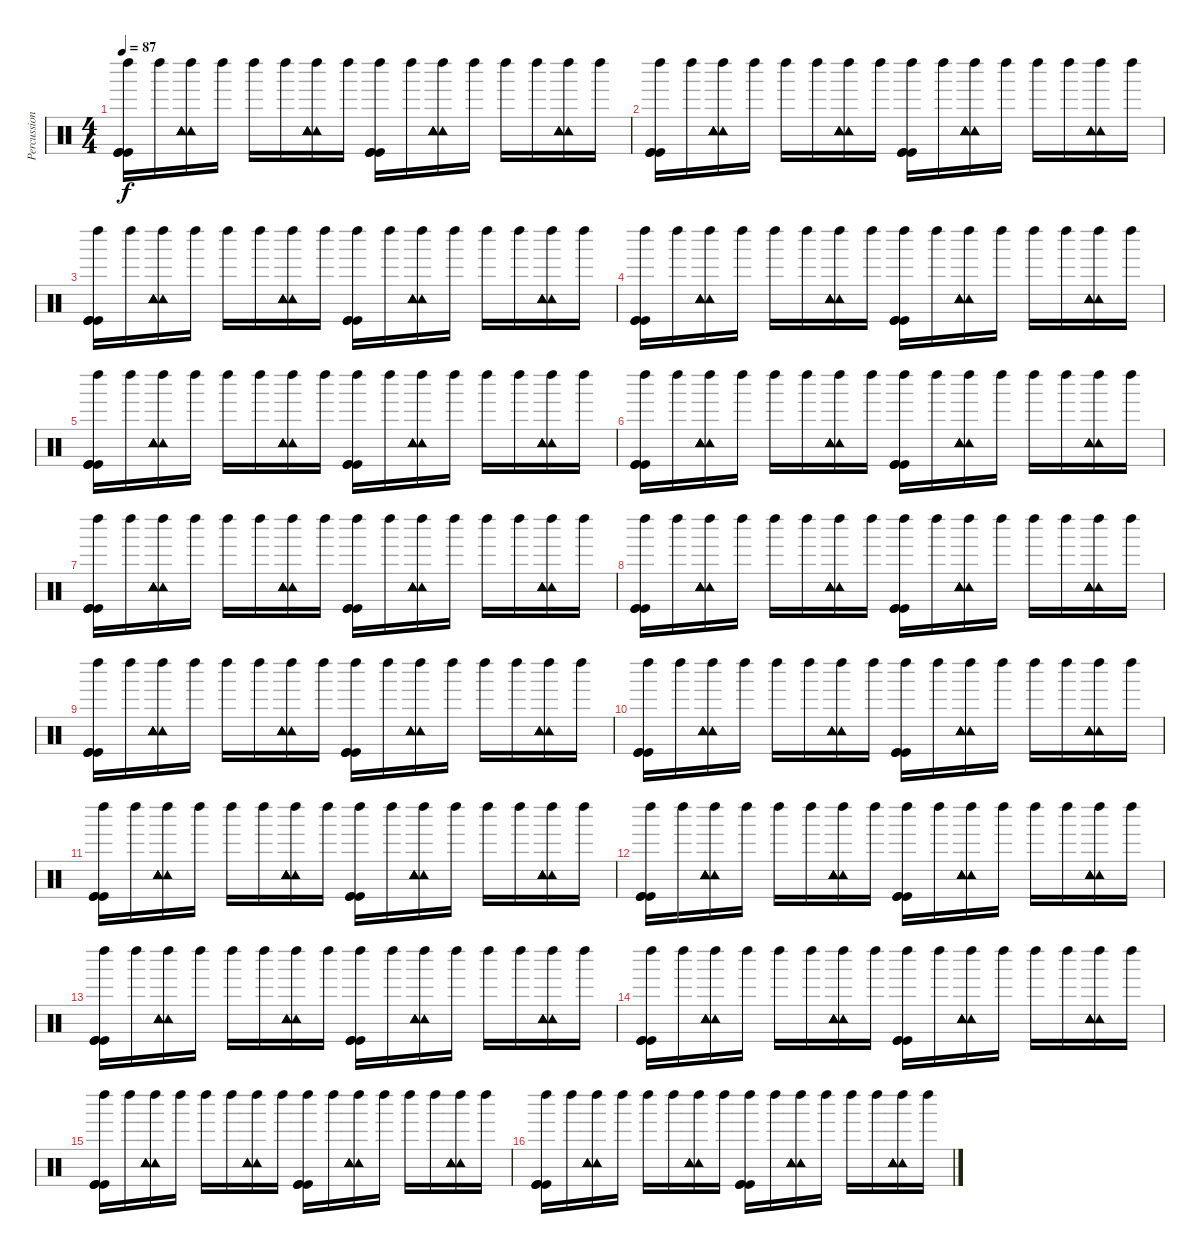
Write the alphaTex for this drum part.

\track ("Percussions" "Percussion") {instrument percussion}
\staff {score}
\articulation defaults
\ts (4 4)
\tempo 87
\clef neutral
\ks c
("Kick (hit)" "Kick (hit)" "Kick (hit)" "Left Maraca (hit)").16{dy f} "Left Maraca (hit)".16 ("Tambourine (hit)" "Tambourine (hit)" "Tambourine (hit)" "Tambourine (hit)" "Left Maraca (hit)" "Tambourine (hit)").16 "Left Maraca (hit)".16 "Left Maraca (hit)".16 "Left Maraca (hit)".16 ("Tambourine (hit)" "Tambourine (hit)" "Tambourine (hit)" "Tambourine (hit)" "Left Maraca (hit)" "Tambourine (hit)").16 "Left Maraca (hit)".16 ("Kick (hit)" "Kick (hit)" "Kick (hit)" "Left Maraca (hit)").16 "Left Maraca (hit)".16 ("Tambourine (hit)" "Tambourine (hit)" "Tambourine (hit)" "Tambourine (hit)" "Left Maraca (hit)" "Tambourine (hit)").16 "Left Maraca (hit)".16 "Left Maraca (hit)".16 "Left Maraca (hit)".16 ("Tambourine (hit)" "Tambourine (hit)" "Tambourine (hit)" "Tambourine (hit)" "Left Maraca (hit)" "Tambourine (hit)").16 "Left Maraca (hit)".16 |
("Kick (hit)" "Kick (hit)" "Kick (hit)" "Left Maraca (hit)").16 "Left Maraca (hit)".16 ("Tambourine (hit)" "Tambourine (hit)" "Tambourine (hit)" "Tambourine (hit)" "Left Maraca (hit)" "Tambourine (hit)").16 "Left Maraca (hit)".16 "Left Maraca (hit)".16 "Left Maraca (hit)".16 ("Tambourine (hit)" "Tambourine (hit)" "Tambourine (hit)" "Tambourine (hit)" "Left Maraca (hit)" "Tambourine (hit)").16 "Left Maraca (hit)".16 ("Kick (hit)" "Kick (hit)" "Kick (hit)" "Left Maraca (hit)").16 "Left Maraca (hit)".16 ("Tambourine (hit)" "Tambourine (hit)" "Tambourine (hit)" "Tambourine (hit)" "Left Maraca (hit)" "Tambourine (hit)").16 "Left Maraca (hit)".16 "Left Maraca (hit)".16 "Left Maraca (hit)".16 ("Tambourine (hit)" "Tambourine (hit)" "Tambourine (hit)" "Tambourine (hit)" "Left Maraca (hit)" "Tambourine (hit)").16 "Left Maraca (hit)".16 |
("Kick (hit)" "Kick (hit)" "Kick (hit)" "Left Maraca (hit)").16 "Left Maraca (hit)".16 ("Tambourine (hit)" "Tambourine (hit)" "Tambourine (hit)" "Tambourine (hit)" "Left Maraca (hit)" "Tambourine (hit)").16 "Left Maraca (hit)".16 "Left Maraca (hit)".16 "Left Maraca (hit)".16 ("Tambourine (hit)" "Tambourine (hit)" "Tambourine (hit)" "Tambourine (hit)" "Left Maraca (hit)" "Tambourine (hit)").16 "Left Maraca (hit)".16 ("Kick (hit)" "Kick (hit)" "Kick (hit)" "Left Maraca (hit)").16 "Left Maraca (hit)".16 ("Tambourine (hit)" "Tambourine (hit)" "Tambourine (hit)" "Tambourine (hit)" "Left Maraca (hit)" "Tambourine (hit)").16 "Left Maraca (hit)".16 "Left Maraca (hit)".16 "Left Maraca (hit)".16 ("Tambourine (hit)" "Tambourine (hit)" "Tambourine (hit)" "Tambourine (hit)" "Left Maraca (hit)" "Tambourine (hit)").16 "Left Maraca (hit)".16 |
("Kick (hit)" "Kick (hit)" "Kick (hit)" "Left Maraca (hit)").16 "Left Maraca (hit)".16 ("Tambourine (hit)" "Tambourine (hit)" "Tambourine (hit)" "Tambourine (hit)" "Left Maraca (hit)" "Tambourine (hit)").16 "Left Maraca (hit)".16 "Left Maraca (hit)".16 "Left Maraca (hit)".16 ("Tambourine (hit)" "Tambourine (hit)" "Tambourine (hit)" "Tambourine (hit)" "Left Maraca (hit)" "Tambourine (hit)").16 "Left Maraca (hit)".16 ("Kick (hit)" "Kick (hit)" "Kick (hit)" "Left Maraca (hit)").16 "Left Maraca (hit)".16 ("Tambourine (hit)" "Tambourine (hit)" "Tambourine (hit)" "Tambourine (hit)" "Left Maraca (hit)" "Tambourine (hit)").16 "Left Maraca (hit)".16 "Left Maraca (hit)".16 "Left Maraca (hit)".16 ("Tambourine (hit)" "Tambourine (hit)" "Tambourine (hit)" "Tambourine (hit)" "Left Maraca (hit)" "Tambourine (hit)").16 "Left Maraca (hit)".16 |
("Kick (hit)" "Kick (hit)" "Kick (hit)" "Left Maraca (hit)").16 "Left Maraca (hit)".16 ("Tambourine (hit)" "Tambourine (hit)" "Tambourine (hit)" "Tambourine (hit)" "Left Maraca (hit)" "Tambourine (hit)").16 "Left Maraca (hit)".16 "Left Maraca (hit)".16 "Left Maraca (hit)".16 ("Tambourine (hit)" "Tambourine (hit)" "Tambourine (hit)" "Tambourine (hit)" "Left Maraca (hit)" "Tambourine (hit)").16 "Left Maraca (hit)".16 ("Kick (hit)" "Kick (hit)" "Kick (hit)" "Left Maraca (hit)").16 "Left Maraca (hit)".16 ("Tambourine (hit)" "Tambourine (hit)" "Tambourine (hit)" "Tambourine (hit)" "Left Maraca (hit)" "Tambourine (hit)").16 "Left Maraca (hit)".16 "Left Maraca (hit)".16 "Left Maraca (hit)".16 ("Tambourine (hit)" "Tambourine (hit)" "Tambourine (hit)" "Tambourine (hit)" "Left Maraca (hit)" "Tambourine (hit)").16 "Left Maraca (hit)".16 |
("Kick (hit)" "Kick (hit)" "Kick (hit)" "Left Maraca (hit)").16 "Left Maraca (hit)".16 ("Tambourine (hit)" "Tambourine (hit)" "Tambourine (hit)" "Tambourine (hit)" "Left Maraca (hit)" "Tambourine (hit)").16 "Left Maraca (hit)".16 "Left Maraca (hit)".16 "Left Maraca (hit)".16 ("Tambourine (hit)" "Tambourine (hit)" "Tambourine (hit)" "Tambourine (hit)" "Left Maraca (hit)" "Tambourine (hit)").16 "Left Maraca (hit)".16 ("Kick (hit)" "Kick (hit)" "Kick (hit)" "Left Maraca (hit)").16 "Left Maraca (hit)".16 ("Tambourine (hit)" "Tambourine (hit)" "Tambourine (hit)" "Tambourine (hit)" "Left Maraca (hit)" "Tambourine (hit)").16 "Left Maraca (hit)".16 "Left Maraca (hit)".16 "Left Maraca (hit)".16 ("Tambourine (hit)" "Tambourine (hit)" "Tambourine (hit)" "Tambourine (hit)" "Left Maraca (hit)" "Tambourine (hit)").16 "Left Maraca (hit)".16 |
("Kick (hit)" "Kick (hit)" "Kick (hit)" "Left Maraca (hit)").16 "Left Maraca (hit)".16 ("Tambourine (hit)" "Tambourine (hit)" "Tambourine (hit)" "Tambourine (hit)" "Left Maraca (hit)" "Tambourine (hit)").16 "Left Maraca (hit)".16 "Left Maraca (hit)".16 "Left Maraca (hit)".16 ("Tambourine (hit)" "Tambourine (hit)" "Tambourine (hit)" "Tambourine (hit)" "Left Maraca (hit)" "Tambourine (hit)").16 "Left Maraca (hit)".16 ("Kick (hit)" "Kick (hit)" "Kick (hit)" "Left Maraca (hit)").16 "Left Maraca (hit)".16 ("Tambourine (hit)" "Tambourine (hit)" "Tambourine (hit)" "Tambourine (hit)" "Left Maraca (hit)" "Tambourine (hit)").16 "Left Maraca (hit)".16 "Left Maraca (hit)".16 "Left Maraca (hit)".16 ("Tambourine (hit)" "Tambourine (hit)" "Tambourine (hit)" "Tambourine (hit)" "Left Maraca (hit)" "Tambourine (hit)").16 "Left Maraca (hit)".16 |
("Kick (hit)" "Kick (hit)" "Kick (hit)" "Left Maraca (hit)").16 "Left Maraca (hit)".16 ("Tambourine (hit)" "Tambourine (hit)" "Tambourine (hit)" "Tambourine (hit)" "Left Maraca (hit)" "Tambourine (hit)").16 "Left Maraca (hit)".16 "Left Maraca (hit)".16 "Left Maraca (hit)".16 ("Tambourine (hit)" "Tambourine (hit)" "Tambourine (hit)" "Tambourine (hit)" "Left Maraca (hit)" "Tambourine (hit)").16 "Left Maraca (hit)".16 ("Kick (hit)" "Kick (hit)" "Kick (hit)" "Left Maraca (hit)").16 "Left Maraca (hit)".16 ("Tambourine (hit)" "Tambourine (hit)" "Tambourine (hit)" "Tambourine (hit)" "Left Maraca (hit)" "Tambourine (hit)").16 "Left Maraca (hit)".16 "Left Maraca (hit)".16 "Left Maraca (hit)".16 ("Tambourine (hit)" "Tambourine (hit)" "Tambourine (hit)" "Tambourine (hit)" "Left Maraca (hit)" "Tambourine (hit)").16 "Left Maraca (hit)".16 |
("Kick (hit)" "Kick (hit)" "Kick (hit)" "Left Maraca (hit)").16 "Left Maraca (hit)".16 ("Tambourine (hit)" "Tambourine (hit)" "Tambourine (hit)" "Tambourine (hit)" "Left Maraca (hit)" "Tambourine (hit)").16 "Left Maraca (hit)".16 "Left Maraca (hit)".16 "Left Maraca (hit)".16 ("Tambourine (hit)" "Tambourine (hit)" "Tambourine (hit)" "Tambourine (hit)" "Left Maraca (hit)" "Tambourine (hit)").16 "Left Maraca (hit)".16 ("Kick (hit)" "Kick (hit)" "Kick (hit)" "Left Maraca (hit)").16 "Left Maraca (hit)".16 ("Tambourine (hit)" "Tambourine (hit)" "Tambourine (hit)" "Tambourine (hit)" "Left Maraca (hit)" "Tambourine (hit)").16 "Left Maraca (hit)".16 "Left Maraca (hit)".16 "Left Maraca (hit)".16 ("Tambourine (hit)" "Tambourine (hit)" "Tambourine (hit)" "Tambourine (hit)" "Left Maraca (hit)" "Tambourine (hit)").16 "Left Maraca (hit)".16 |
("Kick (hit)" "Kick (hit)" "Kick (hit)" "Left Maraca (hit)").16 "Left Maraca (hit)".16 ("Tambourine (hit)" "Tambourine (hit)" "Tambourine (hit)" "Tambourine (hit)" "Left Maraca (hit)" "Tambourine (hit)").16 "Left Maraca (hit)".16 "Left Maraca (hit)".16 "Left Maraca (hit)".16 ("Tambourine (hit)" "Tambourine (hit)" "Tambourine (hit)" "Tambourine (hit)" "Left Maraca (hit)" "Tambourine (hit)").16 "Left Maraca (hit)".16 ("Kick (hit)" "Kick (hit)" "Kick (hit)" "Left Maraca (hit)").16 "Left Maraca (hit)".16 ("Tambourine (hit)" "Tambourine (hit)" "Tambourine (hit)" "Tambourine (hit)" "Left Maraca (hit)" "Tambourine (hit)").16 "Left Maraca (hit)".16 "Left Maraca (hit)".16 "Left Maraca (hit)".16 ("Tambourine (hit)" "Tambourine (hit)" "Tambourine (hit)" "Tambourine (hit)" "Left Maraca (hit)" "Tambourine (hit)").16 "Left Maraca (hit)".16 |
("Kick (hit)" "Kick (hit)" "Kick (hit)" "Left Maraca (hit)").16 "Left Maraca (hit)".16 ("Tambourine (hit)" "Tambourine (hit)" "Tambourine (hit)" "Tambourine (hit)" "Left Maraca (hit)" "Tambourine (hit)").16 "Left Maraca (hit)".16 "Left Maraca (hit)".16 "Left Maraca (hit)".16 ("Tambourine (hit)" "Tambourine (hit)" "Tambourine (hit)" "Tambourine (hit)" "Left Maraca (hit)" "Tambourine (hit)").16 "Left Maraca (hit)".16 ("Kick (hit)" "Kick (hit)" "Kick (hit)" "Left Maraca (hit)").16 "Left Maraca (hit)".16 ("Tambourine (hit)" "Tambourine (hit)" "Tambourine (hit)" "Tambourine (hit)" "Left Maraca (hit)" "Tambourine (hit)").16 "Left Maraca (hit)".16 "Left Maraca (hit)".16 "Left Maraca (hit)".16 ("Tambourine (hit)" "Tambourine (hit)" "Tambourine (hit)" "Tambourine (hit)" "Left Maraca (hit)" "Tambourine (hit)").16 "Left Maraca (hit)".16 |
("Kick (hit)" "Kick (hit)" "Kick (hit)" "Left Maraca (hit)").16 "Left Maraca (hit)".16 ("Tambourine (hit)" "Tambourine (hit)" "Tambourine (hit)" "Tambourine (hit)" "Left Maraca (hit)" "Tambourine (hit)").16 "Left Maraca (hit)".16 "Left Maraca (hit)".16 "Left Maraca (hit)".16 ("Tambourine (hit)" "Tambourine (hit)" "Tambourine (hit)" "Tambourine (hit)" "Left Maraca (hit)" "Tambourine (hit)").16 "Left Maraca (hit)".16 ("Kick (hit)" "Kick (hit)" "Kick (hit)" "Left Maraca (hit)").16 "Left Maraca (hit)".16 ("Tambourine (hit)" "Tambourine (hit)" "Tambourine (hit)" "Tambourine (hit)" "Left Maraca (hit)" "Tambourine (hit)").16 "Left Maraca (hit)".16 "Left Maraca (hit)".16 "Left Maraca (hit)".16 ("Tambourine (hit)" "Tambourine (hit)" "Tambourine (hit)" "Tambourine (hit)" "Left Maraca (hit)" "Tambourine (hit)").16 "Left Maraca (hit)".16 |
("Kick (hit)" "Kick (hit)" "Kick (hit)" "Left Maraca (hit)").16 "Left Maraca (hit)".16 ("Tambourine (hit)" "Tambourine (hit)" "Tambourine (hit)" "Tambourine (hit)" "Left Maraca (hit)" "Tambourine (hit)").16 "Left Maraca (hit)".16 "Left Maraca (hit)".16 "Left Maraca (hit)".16 ("Tambourine (hit)" "Tambourine (hit)" "Tambourine (hit)" "Tambourine (hit)" "Left Maraca (hit)" "Tambourine (hit)").16 "Left Maraca (hit)".16 ("Kick (hit)" "Kick (hit)" "Kick (hit)" "Left Maraca (hit)").16 "Left Maraca (hit)".16 ("Tambourine (hit)" "Tambourine (hit)" "Tambourine (hit)" "Tambourine (hit)" "Left Maraca (hit)" "Tambourine (hit)").16 "Left Maraca (hit)".16 "Left Maraca (hit)".16 "Left Maraca (hit)".16 ("Tambourine (hit)" "Tambourine (hit)" "Tambourine (hit)" "Tambourine (hit)" "Left Maraca (hit)" "Tambourine (hit)").16 "Left Maraca (hit)".16 |
("Kick (hit)" "Kick (hit)" "Kick (hit)" "Left Maraca (hit)").16 "Left Maraca (hit)".16 ("Tambourine (hit)" "Tambourine (hit)" "Tambourine (hit)" "Tambourine (hit)" "Left Maraca (hit)" "Tambourine (hit)").16 "Left Maraca (hit)".16 "Left Maraca (hit)".16 "Left Maraca (hit)".16 ("Tambourine (hit)" "Tambourine (hit)" "Tambourine (hit)" "Tambourine (hit)" "Left Maraca (hit)" "Tambourine (hit)").16 "Left Maraca (hit)".16 ("Kick (hit)" "Kick (hit)" "Kick (hit)" "Left Maraca (hit)").16 "Left Maraca (hit)".16 ("Tambourine (hit)" "Tambourine (hit)" "Tambourine (hit)" "Tambourine (hit)" "Left Maraca (hit)" "Tambourine (hit)").16 "Left Maraca (hit)".16 "Left Maraca (hit)".16 "Left Maraca (hit)".16 ("Tambourine (hit)" "Tambourine (hit)" "Tambourine (hit)" "Tambourine (hit)" "Left Maraca (hit)" "Tambourine (hit)").16 "Left Maraca (hit)".16 |
("Kick (hit)" "Kick (hit)" "Kick (hit)" "Left Maraca (hit)").16 "Left Maraca (hit)".16 ("Tambourine (hit)" "Tambourine (hit)" "Tambourine (hit)" "Tambourine (hit)" "Left Maraca (hit)" "Tambourine (hit)").16 "Left Maraca (hit)".16 "Left Maraca (hit)".16 "Left Maraca (hit)".16 ("Tambourine (hit)" "Tambourine (hit)" "Tambourine (hit)" "Tambourine (hit)" "Left Maraca (hit)" "Tambourine (hit)").16 "Left Maraca (hit)".16 ("Kick (hit)" "Kick (hit)" "Kick (hit)" "Left Maraca (hit)").16 "Left Maraca (hit)".16 ("Tambourine (hit)" "Tambourine (hit)" "Tambourine (hit)" "Tambourine (hit)" "Left Maraca (hit)" "Tambourine (hit)").16 "Left Maraca (hit)".16 "Left Maraca (hit)".16 "Left Maraca (hit)".16 ("Tambourine (hit)" "Tambourine (hit)" "Tambourine (hit)" "Tambourine (hit)" "Left Maraca (hit)" "Tambourine (hit)").16 "Left Maraca (hit)".16 |
("Kick (hit)" "Kick (hit)" "Kick (hit)" "Left Maraca (hit)").16 "Left Maraca (hit)".16 ("Tambourine (hit)" "Tambourine (hit)" "Tambourine (hit)" "Tambourine (hit)" "Left Maraca (hit)" "Tambourine (hit)").16 "Left Maraca (hit)".16 "Left Maraca (hit)".16 "Left Maraca (hit)".16 ("Tambourine (hit)" "Tambourine (hit)" "Tambourine (hit)" "Tambourine (hit)" "Left Maraca (hit)" "Tambourine (hit)").16 "Left Maraca (hit)".16 ("Kick (hit)" "Kick (hit)" "Kick (hit)" "Left Maraca (hit)").16 "Left Maraca (hit)".16 ("Tambourine (hit)" "Tambourine (hit)" "Tambourine (hit)" "Tambourine (hit)" "Left Maraca (hit)" "Tambourine (hit)").16 "Left Maraca (hit)".16 "Left Maraca (hit)".16 "Left Maraca (hit)".16 ("Tambourine (hit)" "Tambourine (hit)" "Tambourine (hit)" "Tambourine (hit)" "Left Maraca (hit)" "Tambourine (hit)").16 "Left Maraca (hit)".16
